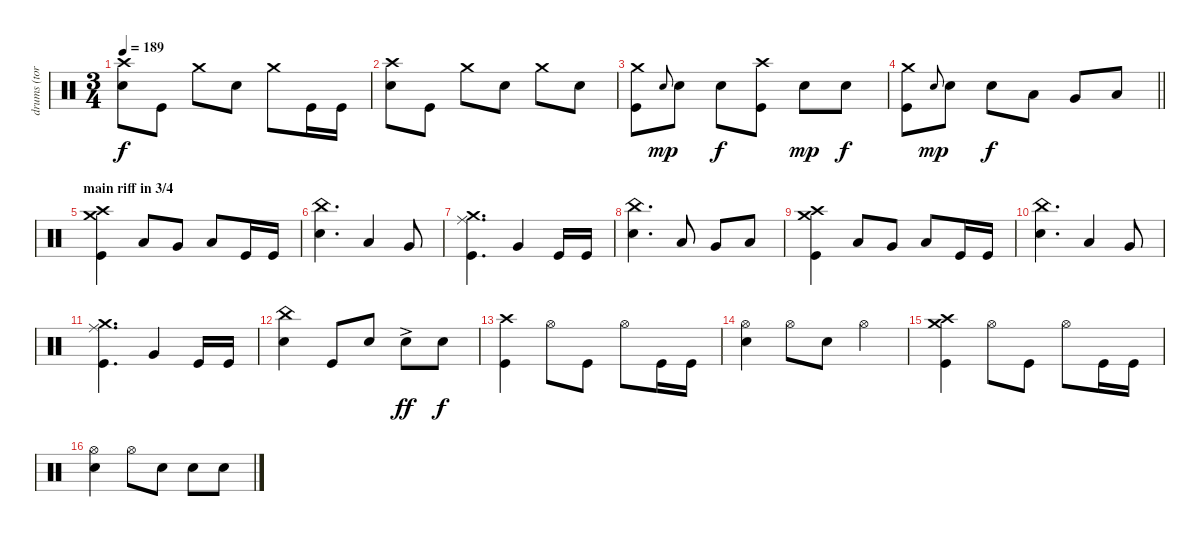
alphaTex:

\track ("drums (tora)" "drums (tor") {instrument percussion}
\staff {score}
\articulation defaults
\ts (3 4)
\tempo 189
\clef neutral
\ks c
("Crash high (hit)" "Snare (hit) 2").8{dy f} "Kick (hit)".8 "Crash medium (hit)".8 "Snare (hit) 2".8 "Crash medium (hit)".8 "Kick (hit)".16 "Kick (hit)".16 |
("Crash high (hit)" "Snare (hit) 2").8 "Kick (hit)".8 "Crash medium (hit)".8 "Snare (hit) 2".8 "Crash medium (hit)".8 "Snare (hit) 2".8 |
("Crash medium (hit)" "Kick (hit)").8 "Snare (hit) 2".8{gr onbeat dy mp} "Snare (hit) 2".8 "Snare (hit) 2".8{dy f} ("Crash high (hit)" "Kick (hit)").8 "Snare (hit) 2".8{dy mp} "Snare (hit) 2".8{dy f} |
\barLineRight lightlight
("Crash medium (hit)" "Kick (hit)").8 "Snare (hit) 2".8{gr onbeat dy mp} "Snare (hit) 2".8 "Snare (hit) 2".8{dy f} "Low Tom (hit)".8 "Very Low Tom (hit)".8 "Low Floor Tom (hit)".8 |
\section ("" "main riff in 3/4")
("Crash high (hit)" "Crash medium (hit)" "Kick (hit)").4 "Low Tom (hit)".8 "Very Low Tom (hit)".8 "Low Floor Tom (hit)".8 "Kick (hit)".16 "Kick (hit)".16 |
("China (hit)" "Snare (hit) 2").4{d} "Low Tom (hit)".4 "Very Low Tom (hit)".8 |
("Crash medium (hit)" "Ride (middle)" "Kick (hit)").4{d} "Very Low Tom (hit)".4 "Kick (hit)".16 "Kick (hit)".16 |
("China (hit)" "Snare (hit) 2").4{d} "Low Tom (hit)".8 "Very Low Tom (hit)".8 "Low Floor Tom (hit)".8 |
("Crash high (hit)" "Crash medium (hit)" "Kick (hit)").4 "Low Tom (hit)".8 "Very Low Tom (hit)".8 "Low Floor Tom (hit)".8 "Kick (hit)".16 "Kick (hit)".16 |
("China (hit)" "Snare (hit) 2").4{d} "Low Tom (hit)".4 "Very Low Tom (hit)".8 |
("Crash medium (hit)" "Ride (middle)" "Kick (hit)").4{d} "Very Low Tom (hit)".4 "Kick (hit)".16 "Kick (hit)".16 |
("China (hit)" "Snare (hit) 2").4 "Kick (hit)".8 "Snare (hit) 2".8 "Snare (hit) 2"{ac}.8{dy ff} "Snare (hit) 2".8{dy f} |
("Crash high (hit)" "Kick (hit)").4 "Hi-Hat (open)".8 "Kick (hit)".8 "Hi-Hat (open)".8 "Kick (hit)".16 "Kick (hit)".16 |
("Hi-Hat (open)" "Snare (hit) 2").4 "Hi-Hat (open)".8 "Snare (hit) 2".8 "Hi-Hat (open)".4 |
("Crash high (hit)" "Crash medium (hit)" "Kick (hit)").4 "Hi-Hat (open)".8 "Kick (hit)".8 "Hi-Hat (open)".8 "Kick (hit)".16 "Kick (hit)".16 |
("Hi-Hat (open)" "Snare (hit) 2").4 "Hi-Hat (open)".8 "Snare (hit) 2".8 "Snare (hit) 2".8 "Snare (hit) 2".8
